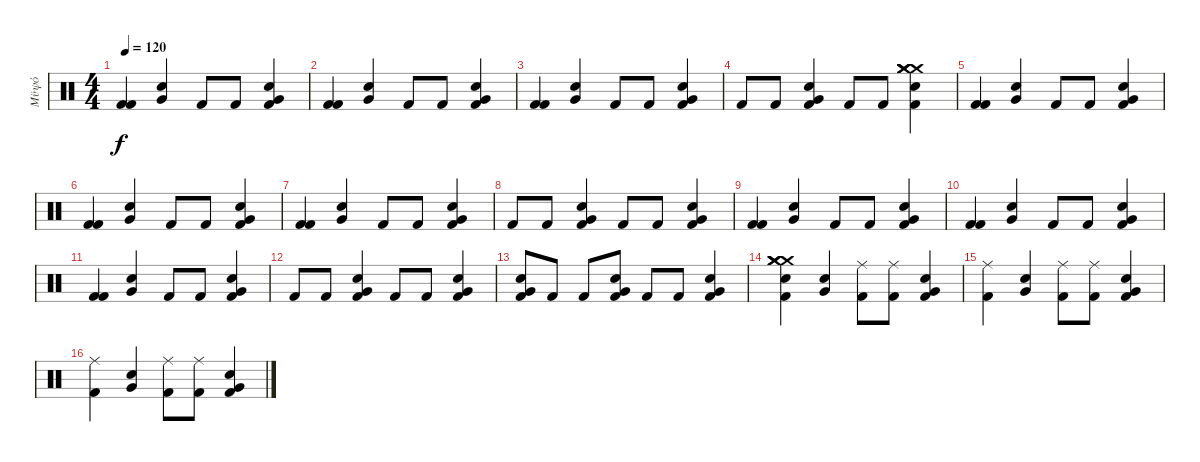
\track ("Μϋψό" "Μϋψό") {instrument percussion}
\staff {score}
\articulation defaults
\ts (4 4)
\tempo 120
\clef neutral
\ks c
("Kick (hit) 2" "Kick (hit) 2").4{dy f} ("Electric Snare (hit)" "Very Low Tom (hit)").4 "Kick (hit) 2".8 "Kick (hit) 2".8 ("Electric Snare (hit)" "Kick (hit) 2" "Very Low Tom (hit)").4 |
("Kick (hit) 2" "Kick (hit) 2").4 ("Electric Snare (hit)" "Very Low Tom (hit)").4 "Kick (hit) 2".8 "Kick (hit) 2".8 ("Electric Snare (hit)" "Kick (hit) 2" "Very Low Tom (hit)").4 |
("Kick (hit) 2" "Kick (hit) 2").4 ("Electric Snare (hit)" "Very Low Tom (hit)").4 "Kick (hit) 2".8 "Kick (hit) 2".8 ("Electric Snare (hit)" "Kick (hit) 2" "Very Low Tom (hit)").4 |
"Kick (hit) 2".8 "Kick (hit) 2".8 ("Electric Snare (hit)" "Kick (hit) 2" "Very Low Tom (hit)").4 "Kick (hit) 2".8 "Kick (hit) 2".8 ("Kick (hit) 2" "Electric Snare (hit)" "Crash medium (hit)" "Crash medium (hit)" "Crash medium (hit)" "Crash medium (hit)").4 |
("Kick (hit) 2" "Kick (hit) 2").4 ("Electric Snare (hit)" "Very Low Tom (hit)").4 "Kick (hit) 2".8 "Kick (hit) 2".8 ("Electric Snare (hit)" "Kick (hit) 2" "Very Low Tom (hit)").4 |
("Kick (hit) 2" "Kick (hit) 2").4 ("Electric Snare (hit)" "Very Low Tom (hit)").4 "Kick (hit) 2".8 "Kick (hit) 2".8 ("Electric Snare (hit)" "Kick (hit) 2" "Very Low Tom (hit)").4 |
("Kick (hit) 2" "Kick (hit) 2").4 ("Electric Snare (hit)" "Very Low Tom (hit)").4 "Kick (hit) 2".8 "Kick (hit) 2".8 ("Electric Snare (hit)" "Kick (hit) 2" "Very Low Tom (hit)").4 |
"Kick (hit) 2".8 "Kick (hit) 2".8 ("Electric Snare (hit)" "Kick (hit) 2" "Very Low Tom (hit)").4 "Kick (hit) 2".8 "Kick (hit) 2".8 ("Electric Snare (hit)" "Kick (hit) 2" "Very Low Tom (hit)").4 |
("Kick (hit) 2" "Kick (hit) 2").4 ("Electric Snare (hit)" "Very Low Tom (hit)").4 "Kick (hit) 2".8 "Kick (hit) 2".8 ("Electric Snare (hit)" "Kick (hit) 2" "Very Low Tom (hit)").4 |
("Kick (hit) 2" "Kick (hit) 2").4 ("Electric Snare (hit)" "Very Low Tom (hit)").4 "Kick (hit) 2".8 "Kick (hit) 2".8 ("Electric Snare (hit)" "Kick (hit) 2" "Very Low Tom (hit)").4 |
("Kick (hit) 2" "Kick (hit) 2").4 ("Electric Snare (hit)" "Very Low Tom (hit)").4 "Kick (hit) 2".8 "Kick (hit) 2".8 ("Electric Snare (hit)" "Kick (hit) 2" "Very Low Tom (hit)").4 |
"Kick (hit) 2".8 "Kick (hit) 2".8 ("Electric Snare (hit)" "Kick (hit) 2" "Very Low Tom (hit)").4 "Kick (hit) 2".8 "Kick (hit) 2".8 ("Electric Snare (hit)" "Kick (hit) 2" "Very Low Tom (hit)").4 |
("Kick (hit) 2" "Electric Snare (hit)" "Very Low Tom (hit)").8 "Kick (hit) 2".8 "Kick (hit) 2".8 ("Kick (hit) 2" "Electric Snare (hit)" "Very Low Tom (hit)").8 "Kick (hit) 2".8 "Kick (hit) 2".8 ("Kick (hit) 2" "Electric Snare (hit)" "Very Low Tom (hit)").4 |
("Kick (hit) 2" "Electric Snare (hit)" "Crash medium (hit)" "Crash medium (hit)" "Crash medium (hit)" "Crash medium (hit)").4 ("Electric Snare (hit)" "Very Low Tom (hit)").4 ("Kick (hit) 2" "Ride (middle)").8 ("Kick (hit) 2" "Ride (middle)").8 ("Electric Snare (hit)" "Kick (hit) 2" "Very Low Tom (hit)").4 |
("Kick (hit) 2" "Ride (middle)").4 ("Electric Snare (hit)" "Very Low Tom (hit)").4 ("Kick (hit) 2" "Ride (middle)").8 ("Kick (hit) 2" "Ride (middle)").8 ("Electric Snare (hit)" "Kick (hit) 2" "Very Low Tom (hit)").4 |
("Kick (hit) 2" "Ride (middle)").4 ("Electric Snare (hit)" "Very Low Tom (hit)").4 ("Kick (hit) 2" "Ride (middle)").8 ("Kick (hit) 2" "Ride (middle)").8 ("Electric Snare (hit)" "Kick (hit) 2" "Very Low Tom (hit)").4
